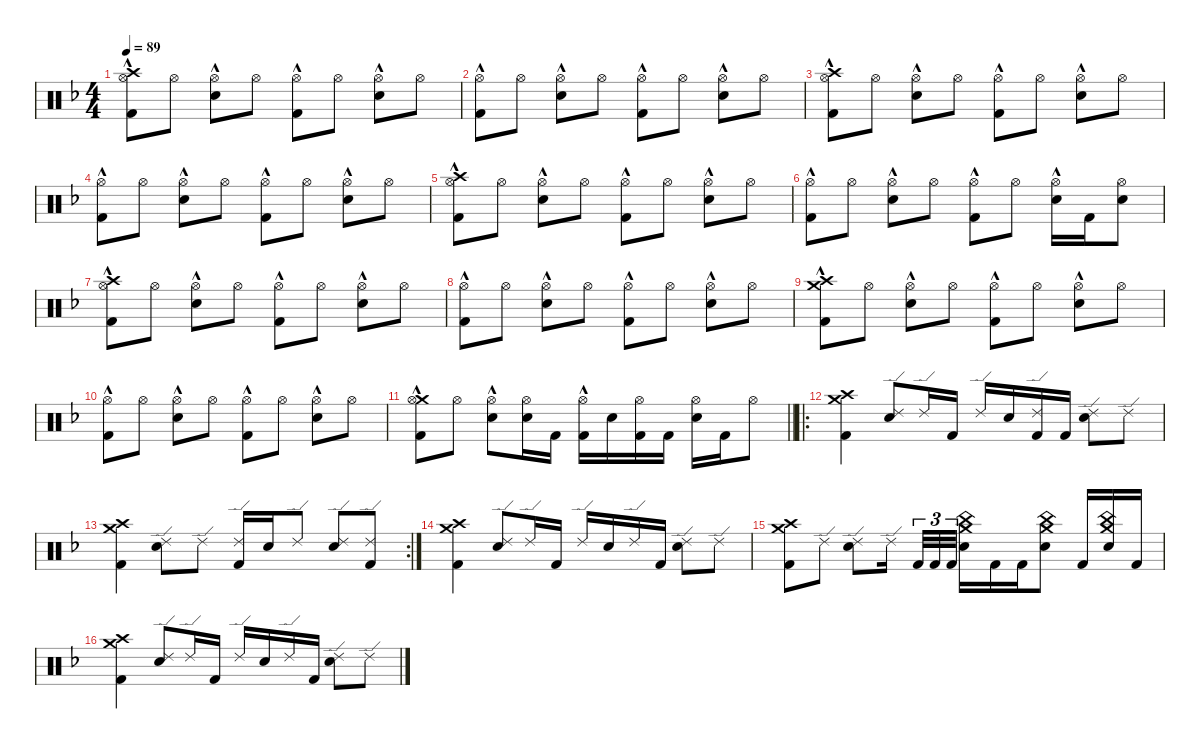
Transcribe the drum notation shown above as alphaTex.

\defaultSystemsLayout 4
\hideDynamics
\bracketExtendMode nobrackets
\singleTrackTrackNamePolicy hidden
\multiTrackTrackNamePolicy hidden
\firstSystemTrackNameMode fullname
\firstSystemTrackNameOrientation horizontal
\otherSystemsTrackNameOrientation horizontal
\track ("Martin Lopez - Drums" "drm.") {instrument percussion}
\staff {score}
\articulation defaults
\ts (4 4)
\tempo 89
\clef neutral
\ks f
("Crash high (hit)"{acc forcenatural} "Hi-Hat (open)"{acc forcenatural} "Kick (hit) 2"{hac acc forcenatural}).8{dy mf beam Down} "Hi-Hat (open)"{acc forcenatural}.8{beam Down} ("Hi-Hat (open)"{acc forcenatural} "Snare (hit) 2"{hac acc forcenatural}).8{beam Down} "Hi-Hat (open)"{acc forcenatural}.8{beam Down} ("Hi-Hat (open)"{acc forcenatural} "Kick (hit) 2"{hac acc forcenatural}).8{beam Down} "Hi-Hat (open)"{acc forcenatural}.8{beam Down} ("Hi-Hat (open)"{acc forcenatural} "Snare (hit) 2"{hac acc forcenatural}).8{beam Down} "Hi-Hat (open)"{acc forcenatural}.8{beam Down} |
("Hi-Hat (open)"{acc forcenatural} "Kick (hit) 2"{hac acc forcenatural}).8{beam Down} "Hi-Hat (open)"{acc forcenatural}.8{beam Down} ("Hi-Hat (open)"{acc forcenatural} "Snare (hit) 2"{hac acc forcenatural}).8{beam Down} "Hi-Hat (open)"{acc forcenatural}.8{beam Down} ("Hi-Hat (open)"{acc forcenatural} "Kick (hit) 2"{hac acc forcenatural}).8{beam Down} "Hi-Hat (open)"{acc forcenatural}.8{beam Down} ("Hi-Hat (open)"{acc forcenatural} "Snare (hit) 2"{hac acc forcenatural}).8{beam Down} "Hi-Hat (open)"{acc forcenatural}.8{beam Down} |
("Crash high (hit)"{acc forcenatural} "Hi-Hat (open)"{acc forcenatural} "Kick (hit) 2"{hac acc forcenatural}).8{beam Down} "Hi-Hat (open)"{acc forcenatural}.8{beam Down} ("Hi-Hat (open)"{acc forcenatural} "Snare (hit) 2"{hac acc forcenatural}).8{beam Down} "Hi-Hat (open)"{acc forcenatural}.8{beam Down} ("Hi-Hat (open)"{acc forcenatural} "Kick (hit) 2"{hac acc forcenatural}).8{beam Down} "Hi-Hat (open)"{acc forcenatural}.8{beam Down} ("Hi-Hat (open)"{acc forcenatural} "Snare (hit) 2"{hac acc forcenatural}).8{beam Down} "Hi-Hat (open)"{acc forcenatural}.8{beam Down} |
("Hi-Hat (open)"{acc forcenatural} "Kick (hit) 2"{hac acc forcenatural}).8{beam Down} "Hi-Hat (open)"{acc forcenatural}.8{beam Down} ("Hi-Hat (open)"{acc forcenatural} "Snare (hit) 2"{hac acc forcenatural}).8{beam Down} "Hi-Hat (open)"{acc forcenatural}.8{beam Down} ("Hi-Hat (open)"{acc forcenatural} "Kick (hit) 2"{hac acc forcenatural}).8{beam Down} "Hi-Hat (open)"{acc forcenatural}.8{beam Down} ("Hi-Hat (open)"{acc forcenatural} "Snare (hit) 2"{hac acc forcenatural}).8{beam Down} "Hi-Hat (open)"{acc forcenatural}.8{beam Down} |
("Crash high (hit)"{acc forcenatural} "Hi-Hat (open)"{acc forcenatural} "Kick (hit) 2"{hac acc forcenatural}).8{beam Down} "Hi-Hat (open)"{acc forcenatural}.8{beam Down} ("Hi-Hat (open)"{acc forcenatural} "Snare (hit) 2"{hac acc forcenatural}).8{beam Down} "Hi-Hat (open)"{acc forcenatural}.8{beam Down} ("Hi-Hat (open)"{acc forcenatural} "Kick (hit) 2"{hac acc forcenatural}).8{beam Down} "Hi-Hat (open)"{acc forcenatural}.8{beam Down} ("Hi-Hat (open)"{acc forcenatural} "Snare (hit) 2"{hac acc forcenatural}).8{beam Down} "Hi-Hat (open)"{acc forcenatural}.8{beam Down} |
("Hi-Hat (open)"{acc forcenatural} "Kick (hit) 2"{hac acc forcenatural}).8{beam Down} "Hi-Hat (open)"{acc forcenatural}.8{beam Down} ("Hi-Hat (open)"{acc forcenatural} "Snare (hit) 2"{hac acc forcenatural}).8{beam Down} "Hi-Hat (open)"{acc forcenatural}.8{beam Down} ("Hi-Hat (open)"{acc forcenatural} "Kick (hit) 2"{hac acc forcenatural}).8{beam Down} "Hi-Hat (open)"{acc forcenatural}.8{beam Down} ("Hi-Hat (open)"{acc forcenatural} "Snare (hit) 2"{hac acc forcenatural}).16{beam Down} "Kick (hit) 2"{acc forcenatural}.16{beam Down} ("Hi-Hat (open)"{acc forcenatural} "Snare (hit) 2"{acc forcenatural}).8{beam Down} |
("Crash high (hit)"{acc forcenatural} "Hi-Hat (open)"{acc forcenatural} "Kick (hit) 2"{hac acc forcenatural}).8{beam Down} "Hi-Hat (open)"{acc forcenatural}.8{beam Down} ("Hi-Hat (open)"{acc forcenatural} "Snare (hit) 2"{hac acc forcenatural}).8{beam Down} "Hi-Hat (open)"{acc forcenatural}.8{beam Down} ("Hi-Hat (open)"{acc forcenatural} "Kick (hit) 2"{hac acc forcenatural}).8{beam Down} "Hi-Hat (open)"{acc forcenatural}.8{beam Down} ("Hi-Hat (open)"{acc forcenatural} "Snare (hit) 2"{hac acc forcenatural}).8{beam Down} "Hi-Hat (open)"{acc forcenatural}.8{beam Down} |
("Hi-Hat (open)"{acc forcenatural} "Kick (hit) 2"{hac acc forcenatural}).8{beam Down} "Hi-Hat (open)"{acc forcenatural}.8{beam Down} ("Hi-Hat (open)"{acc forcenatural} "Snare (hit) 2"{hac acc forcenatural}).8{beam Down} "Hi-Hat (open)"{acc forcenatural}.8{beam Down} ("Hi-Hat (open)"{acc forcenatural} "Kick (hit) 2"{hac acc forcenatural}).8{beam Down} "Hi-Hat (open)"{acc forcenatural}.8{beam Down} ("Hi-Hat (open)"{acc forcenatural} "Snare (hit) 2"{hac acc forcenatural}).8{beam Down} "Hi-Hat (open)"{acc forcenatural}.8{beam Down} |
("Crash high (hit)"{acc forcenatural} "Crash medium (hit)"{acc forcenatural} "Kick (hit) 2"{hac acc forcenatural}).8{beam Down} "Hi-Hat (open)"{acc forcenatural}.8{beam Down} ("Hi-Hat (open)"{acc forcenatural} "Snare (hit) 2"{hac acc forcenatural}).8{beam Down} "Hi-Hat (open)"{acc forcenatural}.8{beam Down} ("Hi-Hat (open)"{acc forcenatural} "Kick (hit) 2"{hac acc forcenatural}).8{beam Down} "Hi-Hat (open)"{acc forcenatural}.8{beam Down} ("Hi-Hat (open)"{acc forcenatural} "Snare (hit) 2"{hac acc forcenatural}).8{beam Down} "Hi-Hat (open)"{acc forcenatural}.8{beam Down} |
("Hi-Hat (open)"{acc forcenatural} "Kick (hit) 2"{hac acc forcenatural}).8{beam Down} "Hi-Hat (open)"{acc forcenatural}.8{beam Down} ("Hi-Hat (open)"{acc forcenatural} "Snare (hit) 2"{hac acc forcenatural}).8{beam Down} "Hi-Hat (open)"{acc forcenatural}.8{beam Down} ("Hi-Hat (open)"{acc forcenatural} "Kick (hit) 2"{hac acc forcenatural}).8{beam Down} "Hi-Hat (open)"{acc forcenatural}.8{beam Down} ("Hi-Hat (open)"{acc forcenatural} "Snare (hit) 2"{hac acc forcenatural}).8{beam Down} "Hi-Hat (open)"{acc forcenatural}.8{beam Down} |
\barLineRight lightlight
("Crash medium (hit)"{acc forcenatural} "Hi-Hat (open)"{acc forcenatural} "Kick (hit) 2"{hac acc forcenatural}).8{beam Down} "Hi-Hat (open)"{acc forcenatural}.8{beam Down} ("Hi-Hat (open)"{acc forcenatural} "Snare (hit) 2"{hac acc forcenatural}).8{beam Down} ("Hi-Hat (open)"{acc forcenatural} "Snare (hit) 2"{acc forcenatural}).16{beam Down} "Kick (hit) 2"{acc forcenatural}.16{beam Down} ("Hi-Hat (open)"{acc forcenatural} "Kick (hit) 2"{hac acc forcenatural}).16{beam Down} "Snare (hit) 2"{acc forcenatural}.16{beam Down} ("Hi-Hat (open)"{acc forcenatural} "Kick (hit) 2"{acc forcenatural}).16{beam Down} "Kick (hit) 2"{acc forcenatural}.16{beam Down} ("Hi-Hat (open)"{acc forcenatural} "Snare (hit) 2"{acc forcenatural}).16{beam Down} "Kick (hit) 2"{acc forcenatural}.16{beam Down} "Hi-Hat (open)"{acc forcenatural}.8{beam Down} |
\ro
("Crash high (hit)"{acc forcenatural} "Crash medium (hit)"{acc forcenatural} "Kick (hit) 2"{acc forcenatural}).4{beam Down} ("Ride (edge) 2"{acc forcenatural} "Snare (hit) 2"{acc forcenatural}).8{beam Up} "Ride (edge) 2"{acc forcenatural}.16{beam Up} "Kick (hit) 2"{acc forcenatural}.16{beam Up} "Ride (edge) 2"{acc forcenatural}.16{beam Up} "Snare (hit) 2"{acc forcenatural}.16{beam Up} ("Ride (edge) 2"{acc forcenatural} "Kick (hit) 2"{acc forcenatural}).16{beam Up} "Kick (hit) 2"{acc forcenatural}.16{beam Up} ("Ride (edge) 2"{acc forcenatural} "Snare (hit) 2"{acc forcenatural}).8{beam Down} "Ride (edge) 2"{acc forcenatural}.8{beam Down} |
\rc 2
("Crash high (hit)"{acc forcenatural} "Crash medium (hit)"{acc forcenatural} "Kick (hit) 2"{acc forcenatural}).4{beam Down} ("Ride (edge) 2"{acc forcenatural} "Snare (hit) 2"{acc forcenatural}).8{beam Down} "Ride (edge) 2"{acc forcenatural}.8{beam Down} ("Ride (edge) 2"{acc forcenatural} "Kick (hit) 2"{acc forcenatural}).16{beam Up} "Snare (hit) 2"{acc forcenatural}.16{beam Up} "Ride (edge) 2"{acc forcenatural}.8{beam Up} ("Ride (edge) 2"{acc forcenatural} "Snare (hit) 2"{acc forcenatural}).8{beam Up} ("Ride (edge) 2"{acc forcenatural} "Kick (hit) 2"{acc forcenatural}).8{beam Up} |
("Crash high (hit)"{acc forcenatural} "Crash medium (hit)"{acc forcenatural} "Kick (hit) 2"{acc forcenatural}).4{beam Down} ("Ride (edge) 2"{acc forcenatural} "Snare (hit) 2"{acc forcenatural}).8{beam Up} "Ride (edge) 2"{acc forcenatural}.16{beam Up} "Kick (hit) 2"{acc forcenatural}.16{beam Up} "Ride (edge) 2"{acc forcenatural}.16{beam Up} "Snare (hit) 2"{acc forcenatural}.16{beam Up} "Ride (edge) 2"{acc forcenatural}.16{beam Up} "Kick (hit) 2"{acc forcenatural}.16{beam Up} ("Ride (edge) 2"{acc forcenatural} "Snare (hit) 2"{acc forcenatural}).8{beam Down} "Ride (edge) 2"{acc forcenatural}.8{beam Down} |
("Crash high (hit)"{acc forcenatural} "Crash medium (hit)"{acc forcenatural} "Kick (hit) 2"{acc forcenatural}).8{beam Down} "Ride (edge) 2"{acc forcenatural}.8{beam Down} ("Ride (edge) 2"{acc forcenatural} "Snare (hit) 2"{acc forcenatural}).8{beam Down} "Ride (edge) 2"{acc forcenatural}.16{beam Down} "Kick (hit) 2"{acc forcenatural}.32{tu (3 2) beam Up} "Kick (hit) 2"{acc forcenatural}.32{tu (3 2) beam Up} "Kick (hit) 2"{acc forcenatural}.32{tu (3 2) beam Up} ("Crash medium (hit)"{acc forcenatural} "China (hit)"{acc forcenatural} "Snare (hit) 2"{acc forcenatural}).16{beam Down} "Kick (hit) 2"{acc forcenatural}.16{beam Down} "Kick (hit) 2"{acc forcenatural}.16{beam Down} ("Crash medium (hit)"{acc forcenatural} "China (hit)"{acc forcenatural} "Snare (hit) 2"{acc forcenatural}).8{beam Down} "Kick (hit) 2"{acc forcenatural}.16{beam Up} ("Crash medium (hit)"{acc forcenatural} "China (hit)"{acc forcenatural} "Snare (hit) 2"{acc forcenatural}).16{beam Up} "Kick (hit) 2"{acc forcenatural}.16{beam Up} |
("Crash high (hit)"{acc forcenatural} "Crash medium (hit)"{acc forcenatural} "Kick (hit) 2"{acc forcenatural}).4{beam Down} ("Ride (edge) 2"{acc forcenatural} "Snare (hit) 2"{acc forcenatural}).8{beam Up} "Ride (edge) 2"{acc forcenatural}.16{beam Up} "Kick (hit) 2"{acc forcenatural}.16{beam Up} "Ride (edge) 2"{acc forcenatural}.16{beam Up} "Snare (hit) 2"{acc forcenatural}.16{beam Up} "Ride (edge) 2"{acc forcenatural}.16{beam Up} "Kick (hit) 2"{acc forcenatural}.16{beam Up} ("Ride (edge) 2"{acc forcenatural} "Snare (hit) 2"{acc forcenatural}).8{beam Down} "Ride (edge) 2"{acc forcenatural}.8{beam Down}
